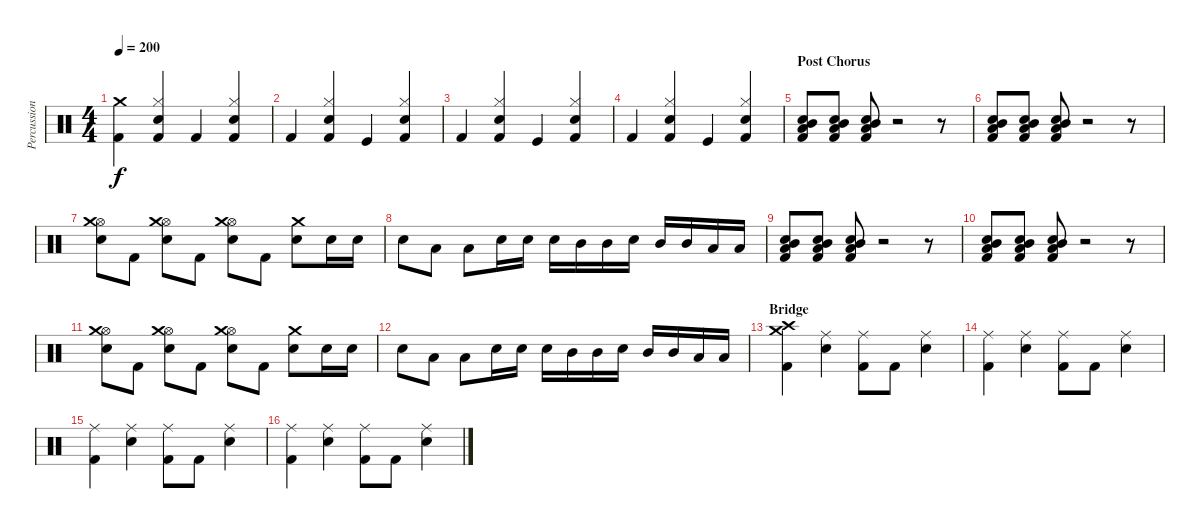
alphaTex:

\track ("Percussion" "Percussion") {instrument percussion}
\staff {score}
\articulation defaults
\ts (4 4)
\tempo 200
\clef neutral
\ks c
("Crash medium (hit)" "Kick (hit) 2").4{dy f} ("Hi-Hat (closed)" "Snare (hit) 2" "Kick (hit) 2").4 "Kick (hit) 2".4 ("Hi-Hat (closed)" "Snare (hit) 2" "Kick (hit) 2").4 |
"Kick (hit) 2".4 ("Hi-Hat (closed)" "Snare (hit) 2" "Kick (hit) 2").4 "Kick (hit)".4 ("Hi-Hat (closed)" "Snare (hit) 2" "Kick (hit) 2").4 |
"Kick (hit) 2".4 ("Hi-Hat (closed)" "Snare (hit) 2" "Kick (hit) 2").4 "Kick (hit)".4 ("Hi-Hat (closed)" "Snare (hit) 2" "Kick (hit) 2").4 |
"Kick (hit) 2".4 ("Hi-Hat (closed)" "Snare (hit) 2" "Kick (hit) 2").4 "Kick (hit)".4 ("Hi-Hat (closed)" "Snare (hit) 2" "Kick (hit) 2").4 |
\section ("" "Post Chorus")
("Low Floor Tom (hit)" "Mid Tom (hit)" "Snare (hit) 2" "Kick (hit) 2").8 ("Low Floor Tom (hit)" "Mid Tom (hit)" "Snare (hit) 2" "Kick (hit) 2").8 ("Low Floor Tom (hit)" "Mid Tom (hit)" "Snare (hit) 2" "Kick (hit) 2").8 r.2 r.8 |
("Low Floor Tom (hit)" "Mid Tom (hit)" "Snare (hit) 2" "Kick (hit) 2").8 ("Low Floor Tom (hit)" "Mid Tom (hit)" "Snare (hit) 2" "Kick (hit) 2").8 ("Low Floor Tom (hit)" "Mid Tom (hit)" "Snare (hit) 2" "Kick (hit) 2").8 r.2 r.8 |
("Hi-Hat (open)" "Electric Snare (hit)" "Crash medium (hit)").8 "Kick (hit) 2".8 ("Hi-Hat (open)" "Electric Snare (hit)" "Crash medium (hit)").8 "Kick (hit) 2".8 ("Hi-Hat (open)" "Electric Snare (hit)" "Crash medium (hit)").8 "Kick (hit) 2".8 ("Electric Snare (hit)" "Crash medium (hit)").8 "Electric Snare (hit)".16 "Electric Snare (hit)".16 |
"Electric Snare (hit)".8 "Low Floor Tom (hit)".8 "Low Floor Tom (hit)".8 "Electric Snare (hit)".16 "Electric Snare (hit)".16 "Electric Snare (hit)".16 "Mid Tom (hit)".16 "Mid Tom (hit)".16 "Electric Snare (hit)".16 "Mid Tom (hit)".16 "Mid Tom (hit)".16 "Low Floor Tom (hit)".16 "Low Floor Tom (hit)".16 |
("Low Floor Tom (hit)" "Mid Tom (hit)" "Snare (hit) 2" "Kick (hit) 2").8 ("Low Floor Tom (hit)" "Mid Tom (hit)" "Snare (hit) 2" "Kick (hit) 2").8 ("Low Floor Tom (hit)" "Mid Tom (hit)" "Snare (hit) 2" "Kick (hit) 2").8 r.2 r.8 |
("Low Floor Tom (hit)" "Mid Tom (hit)" "Snare (hit) 2" "Kick (hit) 2").8 ("Low Floor Tom (hit)" "Mid Tom (hit)" "Snare (hit) 2" "Kick (hit) 2").8 ("Low Floor Tom (hit)" "Mid Tom (hit)" "Snare (hit) 2" "Kick (hit) 2").8 r.2 r.8 |
("Hi-Hat (open)" "Electric Snare (hit)" "Crash medium (hit)").8 "Kick (hit) 2".8 ("Hi-Hat (open)" "Electric Snare (hit)" "Crash medium (hit)").8 "Kick (hit) 2".8 ("Hi-Hat (open)" "Electric Snare (hit)" "Crash medium (hit)").8 "Kick (hit) 2".8 ("Electric Snare (hit)" "Crash medium (hit)").8 "Electric Snare (hit)".16 "Electric Snare (hit)".16 |
"Electric Snare (hit)".8 "Low Floor Tom (hit)".8 "Low Floor Tom (hit)".8 "Electric Snare (hit)".16 "Electric Snare (hit)".16 "Electric Snare (hit)".16 "Mid Tom (hit)".16 "Mid Tom (hit)".16 "Electric Snare (hit)".16 "Mid Tom (hit)".16 "Mid Tom (hit)".16 "Low Floor Tom (hit)".16 "Low Floor Tom (hit)".16 |
\section ("" "Bridge")
("Crash medium (hit)" "Crash high (hit)" "Kick (hit) 2").4 ("Ride (middle)" "Electric Snare (hit)").4 ("Ride (middle)" "Kick (hit) 2").8 "Kick (hit) 2".8 ("Ride (middle)" "Electric Snare (hit)").4 |
("Ride (middle)" "Kick (hit) 2").4 ("Ride (middle)" "Electric Snare (hit)").4 ("Ride (middle)" "Kick (hit) 2").8 "Kick (hit) 2".8 ("Ride (middle)" "Electric Snare (hit)").4 |
("Ride (middle)" "Kick (hit) 2").4 ("Ride (middle)" "Electric Snare (hit)").4 ("Ride (middle)" "Kick (hit) 2").8 "Kick (hit) 2".8 ("Ride (middle)" "Electric Snare (hit)").4 |
("Ride (middle)" "Kick (hit) 2").4 ("Ride (middle)" "Electric Snare (hit)").4 ("Ride (middle)" "Kick (hit) 2").8 "Kick (hit) 2".8 ("Ride (middle)" "Electric Snare (hit)").4
